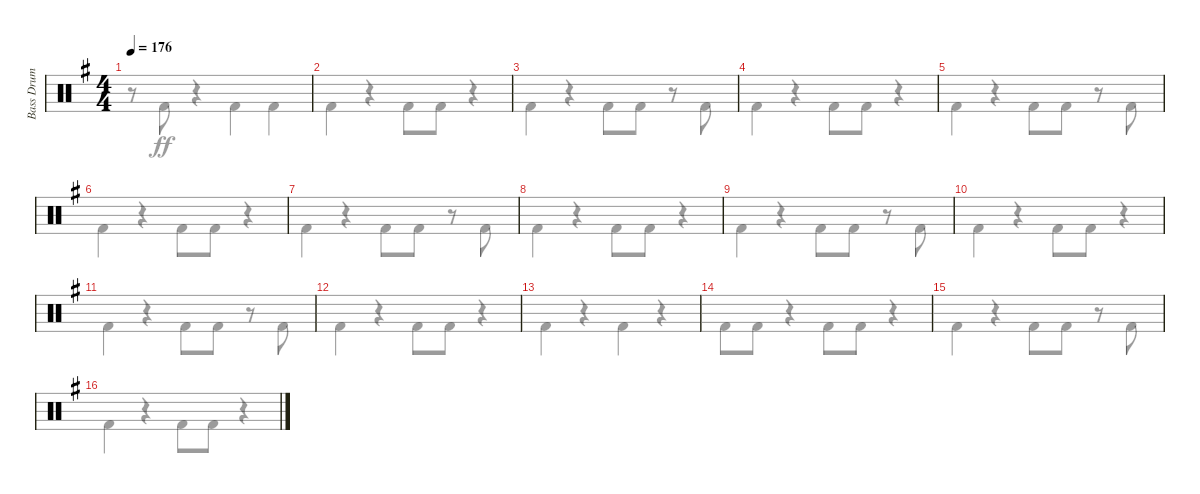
\track ("Bass Drum" "Bass Drum") {instrument percussion}
\staff {score}
\articulation defaults
\voice
\ts (4 4)
\tempo 176
\clef neutral
\ks eminor
|
|
|
|
|
|
|
|
|
|
|
|
|
|
|
\voice
\clef neutral
\ks eminor
r.8{dy ff} "Kick (hit) 2".8 r.4 "Kick (hit) 2".4 "Kick (hit) 2".4 |
"Kick (hit) 2".4 r.4 "Kick (hit) 2".8 "Kick (hit) 2".8 r.4 |
"Kick (hit) 2".4 r.4 "Kick (hit) 2".8 "Kick (hit) 2".8 r.8 "Kick (hit) 2".8 |
"Kick (hit) 2".4 r.4 "Kick (hit) 2".8 "Kick (hit) 2".8 r.4 |
"Kick (hit) 2".4 r.4 "Kick (hit) 2".8 "Kick (hit) 2".8 r.8 "Kick (hit) 2".8 |
"Kick (hit) 2".4 r.4 "Kick (hit) 2".8 "Kick (hit) 2".8 r.4 |
"Kick (hit) 2".4 r.4 "Kick (hit) 2".8 "Kick (hit) 2".8 r.8 "Kick (hit) 2".8 |
"Kick (hit) 2".4 r.4 "Kick (hit) 2".8 "Kick (hit) 2".8 r.4 |
"Kick (hit) 2".4 r.4 "Kick (hit) 2".8 "Kick (hit) 2".8 r.8 "Kick (hit) 2".8 |
"Kick (hit) 2".4 r.4 "Kick (hit) 2".8 "Kick (hit) 2".8 r.4 |
"Kick (hit) 2".4 r.4 "Kick (hit) 2".8 "Kick (hit) 2".8 r.8 "Kick (hit) 2".8 |
"Kick (hit) 2".4 r.4 "Kick (hit) 2".8 "Kick (hit) 2".8 r.4 |
"Kick (hit) 2".4 r.4 "Kick (hit) 2".4 r.4 |
"Kick (hit) 2".8 "Kick (hit) 2".8 r.4 "Kick (hit) 2".8 "Kick (hit) 2".8 r.4 |
"Kick (hit) 2".4 r.4 "Kick (hit) 2".8 "Kick (hit) 2".8 r.8 "Kick (hit) 2".8 |
"Kick (hit) 2".4 r.4 "Kick (hit) 2".8 "Kick (hit) 2".8 r.4
